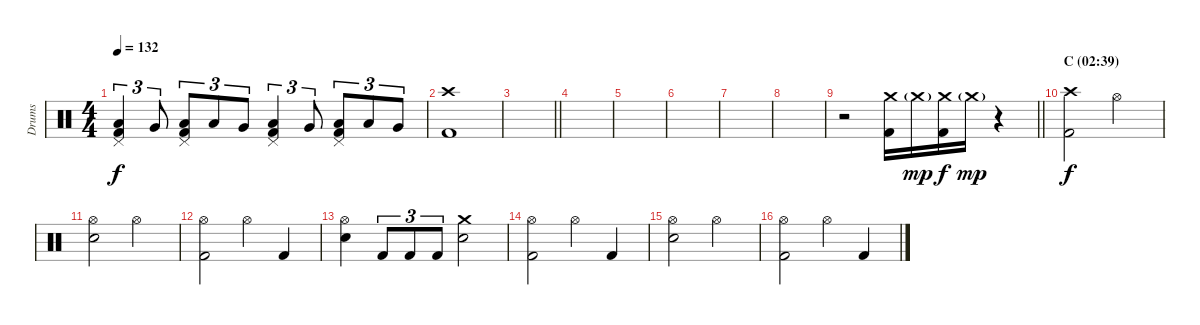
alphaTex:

\track ("Drums" "Drums") {instrument percussion}
\staff {score}
\articulation defaults
\ts (4 4)
\tempo 132
\clef neutral
\ks c
("Pedal Hi-Hat (hit)" "Low Tom (hit)" "Kick (hit) 2").4{tu (3 2) dy f} "Very Low Tom (hit)".8{tu (3 2)} ("Pedal Hi-Hat (hit)" "Low Tom (hit)" "Kick (hit) 2").8{tu (3 2)} "Low Tom (hit)".8{tu (3 2)} "Very Low Tom (hit)".8{tu (3 2)} ("Pedal Hi-Hat (hit)" "Low Tom (hit)" "Kick (hit) 2").4{tu (3 2)} "Very Low Tom (hit)".8{tu (3 2)} ("Pedal Hi-Hat (hit)" "Low Tom (hit)" "Kick (hit) 2").8{tu (3 2)} "Low Tom (hit)".8{tu (3 2)} "Very Low Tom (hit)".8{tu (3 2)} |
("Crash high (hit)" "Kick (hit) 2").1 |
\barLineRight lightlight
|
|
|
|
|
|
\barLineRight lightlight
r.2 ("Crash medium (hit)" "Kick (hit) 2").16 "Crash medium (hit)"{g}.16{dy mp} ("Crash medium (hit)" "Kick (hit) 2").16{dy f} "Crash medium (hit)"{g}.16{dy mp} r.4 |
\section ("" "C (02:39)")
("Crash high (hit)" "Kick (hit) 2").2{dy f} "Hi-Hat (open)".2 |
("Hi-Hat (open)" "Electric Snare (hit)").2 "Hi-Hat (open)".2 |
("Hi-Hat (open)" "Kick (hit) 2").2 "Hi-Hat (open)".4 "Kick (hit) 2".4 |
("Hi-Hat (open)" "Electric Snare (hit)").4 "Kick (hit) 2".8{tu (3 2)} "Kick (hit) 2".8{tu (3 2)} "Kick (hit) 2".8{tu (3 2)} ("Crash medium (hit)" "Electric Snare (hit)").2 |
("Hi-Hat (open)" "Kick (hit) 2").2 "Hi-Hat (open)".4 "Kick (hit) 2".4 |
("Hi-Hat (open)" "Electric Snare (hit)").2 "Hi-Hat (open)".2 |
("Hi-Hat (open)" "Kick (hit) 2").2 "Hi-Hat (open)".4 "Kick (hit) 2".4
